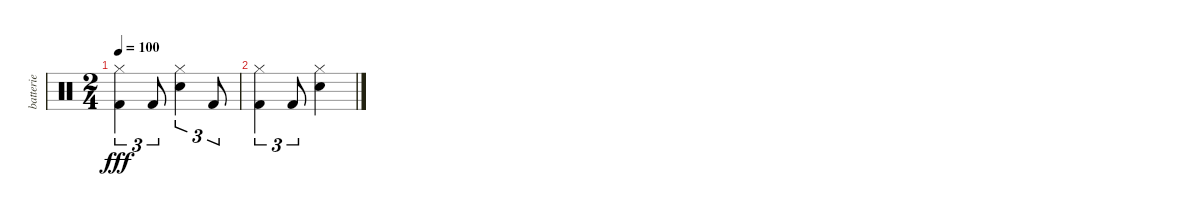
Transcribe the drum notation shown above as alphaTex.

\track ("batterie" "batterie") {instrument percussion}
\staff {score}
\articulation defaults
\ts (2 4)
\tempo 100
\clef neutral
\ks c
("Hi-Hat (closed)" "Kick (hit) 2").4{tu (3 2) dy fff} "Kick (hit) 2".8{tu (3 2)} ("Hi-Hat (closed)" "Electric Snare (hit)").4{tu (3 2)} "Kick (hit) 2".8{tu (3 2)} |
("Hi-Hat (closed)" "Kick (hit) 2").4{tu (3 2)} "Kick (hit) 2".8{tu (3 2)} ("Hi-Hat (closed)" "Electric Snare (hit)").4
